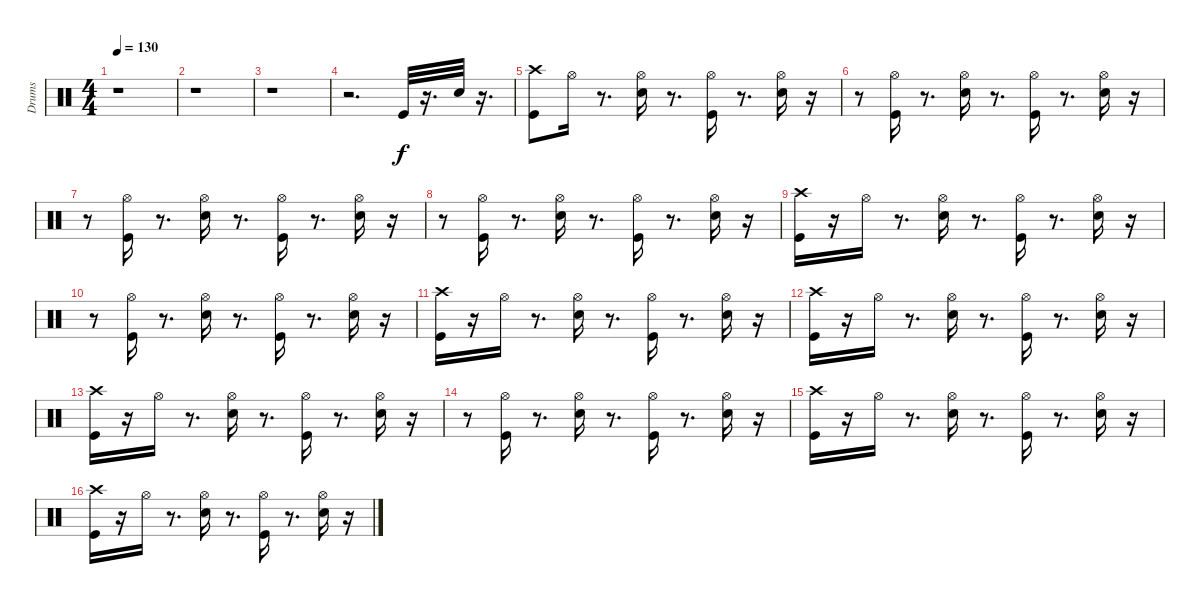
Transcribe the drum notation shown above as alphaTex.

\track ("Drums" "Drums") {instrument percussion}
\staff {score}
\articulation defaults
\ts (4 4)
\tempo 130
\clef neutral
\ks c
r.1{dy f} |
r.1 |
r.1 |
r.2{d} "Kick (hit)".32 r.16{d} "Snare (hit) 2".32 r.16{d} |
("Kick (hit)" "Crash high (hit)").8 "Hi-Hat (open)".16 r.8{d} ("Snare (hit) 2" "Hi-Hat (open)").16 r.8{d} ("Hi-Hat (open)" "Kick (hit)").16 r.8{d} ("Hi-Hat (open)" "Snare (hit) 2").16 r.16 |
r.8 ("Hi-Hat (open)" "Kick (hit)").16 r.8{d} ("Hi-Hat (open)" "Snare (hit) 2").16 r.8{d} ("Hi-Hat (open)" "Kick (hit)").16 r.8{d} ("Hi-Hat (open)" "Snare (hit) 2").16 r.16 |
r.8 ("Hi-Hat (open)" "Kick (hit)").16 r.8{d} ("Hi-Hat (open)" "Snare (hit) 2").16 r.8{d} ("Hi-Hat (open)" "Kick (hit)").16 r.8{d} ("Hi-Hat (open)" "Snare (hit) 2").16 r.16 |
r.8 ("Hi-Hat (open)" "Kick (hit)").16 r.8{d} ("Hi-Hat (open)" "Snare (hit) 2").16 r.8{d} ("Hi-Hat (open)" "Kick (hit)").16 r.8{d} ("Hi-Hat (open)" "Snare (hit) 2").16 r.16 |
("Kick (hit)" "Crash high (hit)").16 r.16 "Hi-Hat (open)".16 r.8{d} ("Hi-Hat (open)" "Snare (hit) 2").16 r.8{d} ("Hi-Hat (open)" "Kick (hit)").16 r.8{d} ("Hi-Hat (open)" "Snare (hit) 2").16 r.16 |
r.8 ("Hi-Hat (open)" "Kick (hit)").16 r.8{d} ("Hi-Hat (open)" "Snare (hit) 2").16 r.8{d} ("Hi-Hat (open)" "Kick (hit)").16 r.8{d} ("Hi-Hat (open)" "Snare (hit) 2").16 r.16 |
("Crash high (hit)" "Kick (hit)").16 r.16 "Hi-Hat (open)".16 r.8{d} ("Hi-Hat (open)" "Snare (hit) 2").16 r.8{d} ("Hi-Hat (open)" "Kick (hit)").16 r.8{d} ("Hi-Hat (open)" "Snare (hit) 2").16 r.16 |
("Kick (hit)" "Crash high (hit)").16 r.16 "Hi-Hat (open)".16 r.8{d} ("Hi-Hat (open)" "Snare (hit) 2").16 r.8{d} ("Hi-Hat (open)" "Kick (hit)").16 r.8{d} ("Hi-Hat (open)" "Snare (hit) 2").16 r.16 |
("Kick (hit)" "Crash high (hit)").16 r.16 "Hi-Hat (open)".16 r.8{d} ("Hi-Hat (open)" "Snare (hit) 2").16 r.8{d} ("Hi-Hat (open)" "Kick (hit)").16 r.8{d} ("Hi-Hat (open)" "Snare (hit) 2").16 r.16 |
r.8 ("Hi-Hat (open)" "Kick (hit)").16 r.8{d} ("Hi-Hat (open)" "Snare (hit) 2").16 r.8{d} ("Hi-Hat (open)" "Kick (hit)").16 r.8{d} ("Hi-Hat (open)" "Snare (hit) 2").16 r.16 |
("Crash high (hit)" "Kick (hit)").16 r.16 "Hi-Hat (open)".16 r.8{d} ("Hi-Hat (open)" "Snare (hit) 2").16 r.8{d} ("Hi-Hat (open)" "Kick (hit)").16 r.8{d} ("Hi-Hat (open)" "Snare (hit) 2").16 r.16 |
("Kick (hit)" "Crash high (hit)").16 r.16 "Hi-Hat (open)".16 r.8{d} ("Hi-Hat (open)" "Snare (hit) 2").16 r.8{d} ("Hi-Hat (open)" "Kick (hit)").16 r.8{d} ("Hi-Hat (open)" "Snare (hit) 2").16 r.16
